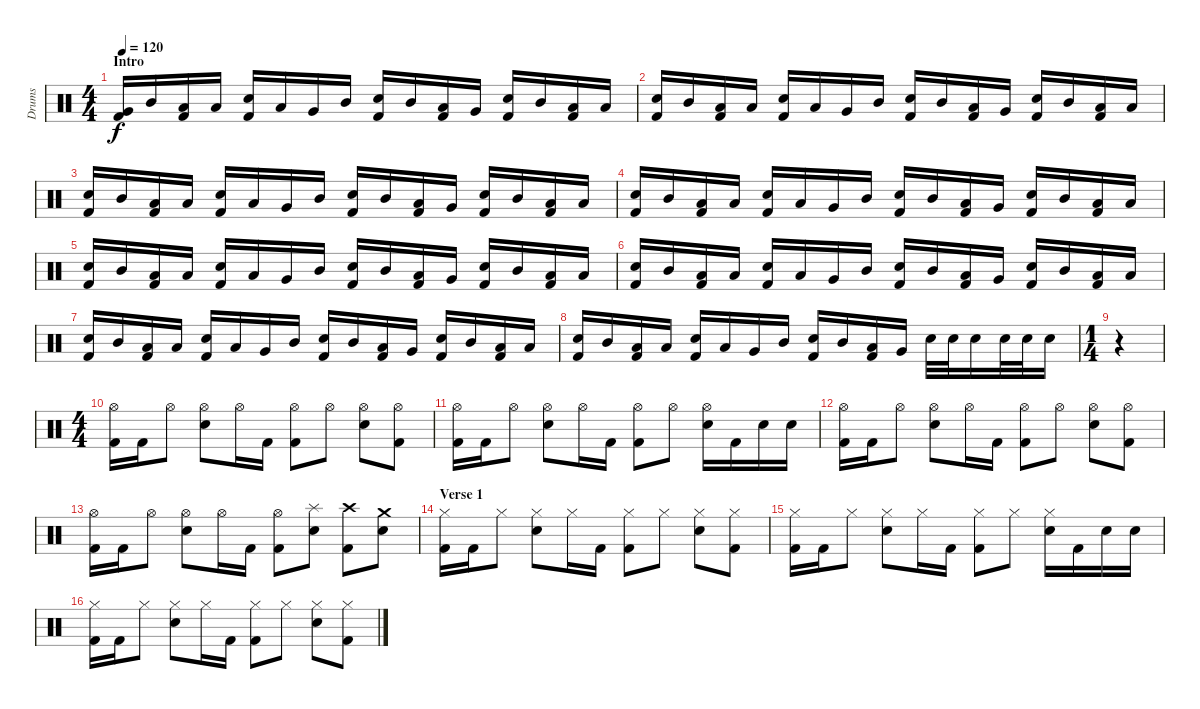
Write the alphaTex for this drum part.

\track ("Drums" "Drums") {instrument percussion}
\staff {score}
\articulation defaults
\ts (4 4)
\section ("" "Intro")
\tempo 120
\clef neutral
\ks c
("Very Low Tom (hit)" "Kick (hit) 2").16{dy f} "Mid Tom (hit)".16 ("Low Tom (hit)" "Kick (hit) 2").16 "Low Floor Tom (hit)".16 ("Electric Snare (hit)" "Kick (hit) 2").16 "Low Tom (hit)".16 "Very Low Tom (hit)".16 "Mid Tom (hit)".16 ("Electric Snare (hit)" "Kick (hit) 2").16 "Mid Tom (hit)".16 ("Low Tom (hit)" "Kick (hit) 2").16 "Very Low Tom (hit)".16 ("Electric Snare (hit)" "Kick (hit) 2").16 "Mid Tom (hit)".16 ("Low Floor Tom (hit)" "Kick (hit) 2").16 "Low Tom (hit)".16 |
("Electric Snare (hit)" "Kick (hit) 2").16 "Mid Tom (hit)".16 ("Low Tom (hit)" "Kick (hit) 2").16 "Low Floor Tom (hit)".16 ("Electric Snare (hit)" "Kick (hit) 2").16 "Low Tom (hit)".16 "Very Low Tom (hit)".16 "Mid Tom (hit)".16 ("Electric Snare (hit)" "Kick (hit) 2").16 "Mid Tom (hit)".16 ("Low Tom (hit)" "Kick (hit) 2").16 "Very Low Tom (hit)".16 ("Electric Snare (hit)" "Kick (hit) 2").16 "Mid Tom (hit)".16 ("Low Floor Tom (hit)" "Kick (hit) 2").16 "Low Tom (hit)".16 |
("Electric Snare (hit)" "Kick (hit) 2").16 "Mid Tom (hit)".16 ("Low Tom (hit)" "Kick (hit) 2").16 "Low Floor Tom (hit)".16 ("Electric Snare (hit)" "Kick (hit) 2").16 "Low Tom (hit)".16 "Very Low Tom (hit)".16 "Mid Tom (hit)".16 ("Electric Snare (hit)" "Kick (hit) 2").16 "Mid Tom (hit)".16 ("Low Tom (hit)" "Kick (hit) 2").16 "Very Low Tom (hit)".16 ("Electric Snare (hit)" "Kick (hit) 2").16 "Mid Tom (hit)".16 ("Low Floor Tom (hit)" "Kick (hit) 2").16 "Low Tom (hit)".16 |
("Electric Snare (hit)" "Kick (hit) 2").16 "Mid Tom (hit)".16 ("Low Tom (hit)" "Kick (hit) 2").16 "Low Floor Tom (hit)".16 ("Electric Snare (hit)" "Kick (hit) 2").16 "Low Tom (hit)".16 "Very Low Tom (hit)".16 "Mid Tom (hit)".16 ("Electric Snare (hit)" "Kick (hit) 2").16 "Mid Tom (hit)".16 ("Low Tom (hit)" "Kick (hit) 2").16 "Very Low Tom (hit)".16 ("Electric Snare (hit)" "Kick (hit) 2").16 "Mid Tom (hit)".16 ("Low Floor Tom (hit)" "Kick (hit) 2").16 "Low Tom (hit)".16 |
("Electric Snare (hit)" "Kick (hit) 2").16 "Mid Tom (hit)".16 ("Low Tom (hit)" "Kick (hit) 2").16 "Low Floor Tom (hit)".16 ("Electric Snare (hit)" "Kick (hit) 2").16 "Low Tom (hit)".16 "Very Low Tom (hit)".16 "Mid Tom (hit)".16 ("Electric Snare (hit)" "Kick (hit) 2").16 "Mid Tom (hit)".16 ("Low Tom (hit)" "Kick (hit) 2").16 "Very Low Tom (hit)".16 ("Electric Snare (hit)" "Kick (hit) 2").16 "Mid Tom (hit)".16 ("Low Floor Tom (hit)" "Kick (hit) 2").16 "Low Tom (hit)".16 |
("Electric Snare (hit)" "Kick (hit) 2").16 "Mid Tom (hit)".16 ("Low Tom (hit)" "Kick (hit) 2").16 "Low Floor Tom (hit)".16 ("Electric Snare (hit)" "Kick (hit) 2").16 "Low Tom (hit)".16 "Very Low Tom (hit)".16 "Mid Tom (hit)".16 ("Electric Snare (hit)" "Kick (hit) 2").16 "Mid Tom (hit)".16 ("Low Tom (hit)" "Kick (hit) 2").16 "Very Low Tom (hit)".16 ("Electric Snare (hit)" "Kick (hit) 2").16 "Mid Tom (hit)".16 ("Low Floor Tom (hit)" "Kick (hit) 2").16 "Low Tom (hit)".16 |
("Electric Snare (hit)" "Kick (hit) 2").16 "Mid Tom (hit)".16 ("Low Tom (hit)" "Kick (hit) 2").16 "Low Floor Tom (hit)".16 ("Electric Snare (hit)" "Kick (hit) 2").16 "Low Tom (hit)".16 "Very Low Tom (hit)".16 "Mid Tom (hit)".16 ("Electric Snare (hit)" "Kick (hit) 2").16 "Mid Tom (hit)".16 ("Low Tom (hit)" "Kick (hit) 2").16 "Very Low Tom (hit)".16 ("Electric Snare (hit)" "Kick (hit) 2").16 "Mid Tom (hit)".16 ("Low Floor Tom (hit)" "Kick (hit) 2").16 "Low Tom (hit)".16 |
("Electric Snare (hit)" "Kick (hit) 2").16 "Mid Tom (hit)".16 ("Low Tom (hit)" "Kick (hit) 2").16 "Low Floor Tom (hit)".16 ("Electric Snare (hit)" "Kick (hit) 2").16 "Low Tom (hit)".16 "Very Low Tom (hit)".16 "Mid Tom (hit)".16 ("Electric Snare (hit)" "Kick (hit) 2").16 "Mid Tom (hit)".16 ("Low Tom (hit)" "Kick (hit) 2").16 "Very Low Tom (hit)".16 "Electric Snare (hit)".32 "Electric Snare (hit)".32 "Electric Snare (hit)".16 "Electric Snare (hit)".32 "Electric Snare (hit)".32 "Electric Snare (hit)".16 |
\ts (1 4)
r.4 |
\ts (4 4)
("Hi-Hat (open)" "Kick (hit) 2").16 "Kick (hit) 2".16 "Hi-Hat (open)".8 ("Hi-Hat (open)" "Electric Snare (hit)").8 "Hi-Hat (open)".16 "Kick (hit) 2".16 ("Hi-Hat (open)" "Kick (hit) 2").8 "Hi-Hat (open)".8 ("Hi-Hat (open)" "Electric Snare (hit)").8 ("Hi-Hat (open)" "Kick (hit) 2").8 |
("Hi-Hat (open)" "Kick (hit) 2").16 "Kick (hit) 2".16 "Hi-Hat (open)".8 ("Hi-Hat (open)" "Electric Snare (hit)").8 "Hi-Hat (open)".16 "Kick (hit) 2".16 ("Hi-Hat (open)" "Kick (hit) 2").8 "Hi-Hat (open)".8 ("Hi-Hat (open)" "Electric Snare (hit)").16 "Kick (hit) 2".16 "Electric Snare (hit)".16 "Electric Snare (hit)".16 |
("Hi-Hat (open)" "Kick (hit) 2").16 "Kick (hit) 2".16 "Hi-Hat (open)".8 ("Hi-Hat (open)" "Electric Snare (hit)").8 "Hi-Hat (open)".16 "Kick (hit) 2".16 ("Hi-Hat (open)" "Kick (hit) 2").8 "Hi-Hat (open)".8 ("Hi-Hat (open)" "Electric Snare (hit)").8 ("Hi-Hat (open)" "Kick (hit) 2").8 |
("Hi-Hat (open)" "Kick (hit) 2").16 "Kick (hit) 2".16 "Hi-Hat (open)".8 ("Hi-Hat (open)" "Electric Snare (hit)").8 "Hi-Hat (open)".16 "Kick (hit) 2".16 ("Hi-Hat (open)" "Kick (hit) 2").8 ("Splash (hit)" "Electric Snare (hit)").8 ("Crash high (hit)" "Kick (hit) 2").8 ("Crash medium (hit)" "Electric Snare (hit)").8 |
\section ("" "Verse 1")
("Hi-Hat (closed)" "Kick (hit) 2").16 "Kick (hit) 2".16 "Hi-Hat (closed)".8 ("Hi-Hat (closed)" "Electric Snare (hit)").8 "Hi-Hat (closed)".16 "Kick (hit) 2".16 ("Hi-Hat (closed)" "Kick (hit) 2").8 "Hi-Hat (closed)".8 ("Hi-Hat (closed)" "Electric Snare (hit)").8 ("Hi-Hat (closed)" "Kick (hit) 2").8 |
("Hi-Hat (closed)" "Kick (hit) 2").16 "Kick (hit) 2".16 "Hi-Hat (closed)".8 ("Hi-Hat (closed)" "Electric Snare (hit)").8 "Hi-Hat (closed)".16 "Kick (hit) 2".16 ("Hi-Hat (closed)" "Kick (hit) 2").8 "Hi-Hat (closed)".8 ("Hi-Hat (closed)" "Electric Snare (hit)").16 "Kick (hit) 2".16 "Electric Snare (hit)".16 "Electric Snare (hit)".16 |
("Hi-Hat (closed)" "Kick (hit) 2").16 "Kick (hit) 2".16 "Hi-Hat (closed)".8 ("Hi-Hat (closed)" "Electric Snare (hit)").8 "Hi-Hat (closed)".16 "Kick (hit) 2".16 ("Hi-Hat (closed)" "Kick (hit) 2").8 "Hi-Hat (closed)".8 ("Hi-Hat (closed)" "Electric Snare (hit)").8 ("Hi-Hat (closed)" "Kick (hit) 2").8
